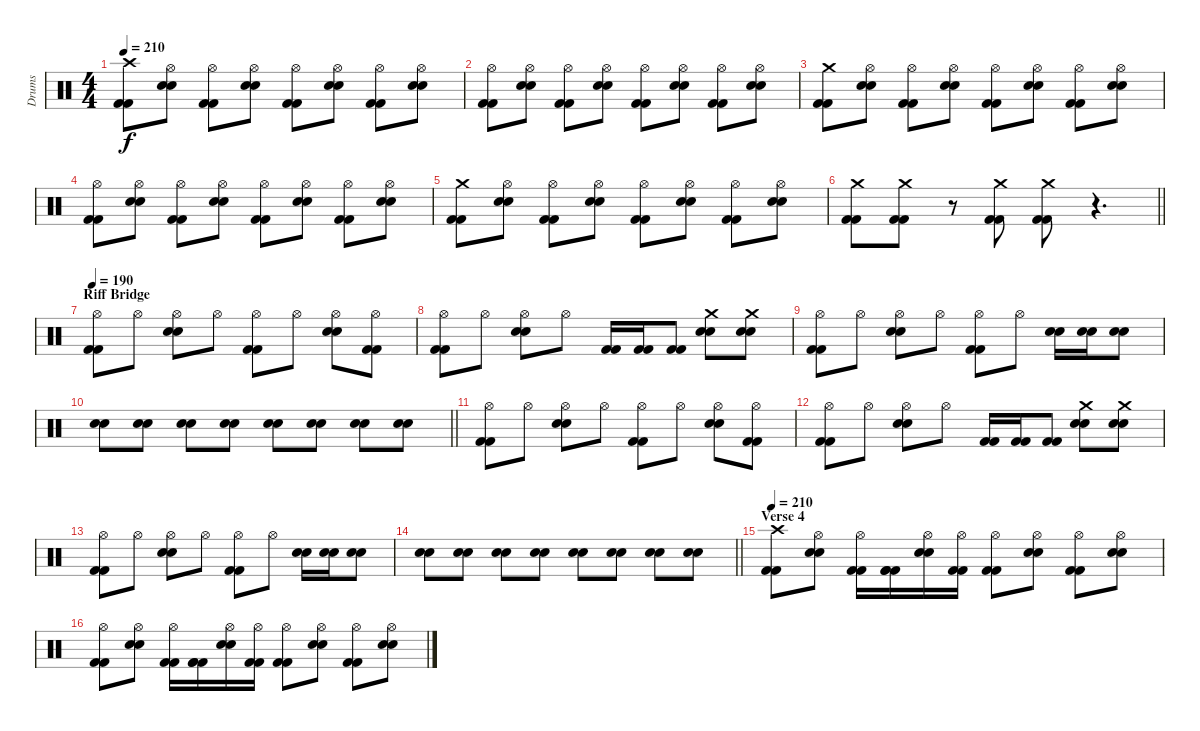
\track ("Drums" "Drums") {instrument percussion}
\staff {score}
\articulation defaults
\ts (4 4)
\tempo 210
\clef neutral
\ks c
("Crash high (hit)" "Kick (hit) 2" "Kick (hit) 2").8{dy f} ("Hi-Hat (open)" "Snare (hit) 2" "Snare (hit) 2").8 ("Hi-Hat (open)" "Kick (hit) 2" "Kick (hit) 2").8 ("Hi-Hat (open)" "Snare (hit) 2" "Snare (hit) 2").8 ("Hi-Hat (open)" "Kick (hit) 2" "Kick (hit) 2").8 ("Hi-Hat (open)" "Snare (hit) 2" "Snare (hit) 2").8 ("Hi-Hat (open)" "Kick (hit) 2" "Kick (hit) 2").8 ("Hi-Hat (open)" "Snare (hit) 2" "Snare (hit) 2").8 |
("Hi-Hat (open)" "Kick (hit) 2" "Kick (hit) 2").8 ("Hi-Hat (open)" "Snare (hit) 2" "Snare (hit) 2").8 ("Hi-Hat (open)" "Kick (hit) 2" "Kick (hit) 2").8 ("Hi-Hat (open)" "Snare (hit) 2" "Snare (hit) 2").8 ("Hi-Hat (open)" "Kick (hit) 2" "Kick (hit) 2").8 ("Hi-Hat (open)" "Snare (hit) 2" "Snare (hit) 2").8 ("Hi-Hat (open)" "Kick (hit) 2" "Kick (hit) 2").8 ("Hi-Hat (open)" "Snare (hit) 2" "Snare (hit) 2").8 |
("Crash medium (hit)" "Kick (hit) 2" "Kick (hit) 2").8 ("Hi-Hat (open)" "Snare (hit) 2" "Snare (hit) 2").8 ("Hi-Hat (open)" "Kick (hit) 2" "Kick (hit) 2").8 ("Hi-Hat (open)" "Snare (hit) 2" "Snare (hit) 2").8 ("Hi-Hat (open)" "Kick (hit) 2" "Kick (hit) 2").8 ("Hi-Hat (open)" "Snare (hit) 2" "Snare (hit) 2").8 ("Hi-Hat (open)" "Kick (hit) 2" "Kick (hit) 2").8 ("Hi-Hat (open)" "Snare (hit) 2" "Snare (hit) 2").8 |
("Hi-Hat (open)" "Kick (hit) 2" "Kick (hit) 2").8 ("Hi-Hat (open)" "Snare (hit) 2" "Snare (hit) 2").8 ("Hi-Hat (open)" "Kick (hit) 2" "Kick (hit) 2").8 ("Hi-Hat (open)" "Snare (hit) 2" "Snare (hit) 2").8 ("Hi-Hat (open)" "Kick (hit) 2" "Kick (hit) 2").8 ("Hi-Hat (open)" "Snare (hit) 2" "Snare (hit) 2").8 ("Hi-Hat (open)" "Kick (hit) 2" "Kick (hit) 2").8 ("Hi-Hat (open)" "Snare (hit) 2" "Snare (hit) 2").8 |
("Crash medium (hit)" "Kick (hit) 2" "Kick (hit) 2").8 ("Hi-Hat (open)" "Snare (hit) 2" "Snare (hit) 2").8 ("Hi-Hat (open)" "Kick (hit) 2" "Kick (hit) 2").8 ("Hi-Hat (open)" "Snare (hit) 2" "Snare (hit) 2").8 ("Hi-Hat (open)" "Kick (hit) 2" "Kick (hit) 2").8 ("Hi-Hat (open)" "Snare (hit) 2" "Snare (hit) 2").8 ("Hi-Hat (open)" "Kick (hit) 2" "Kick (hit) 2").8 ("Hi-Hat (open)" "Snare (hit) 2" "Snare (hit) 2").8 |
\barLineRight lightlight
("Crash medium (hit)" "Kick (hit) 2" "Kick (hit) 2").8 ("Crash medium (hit)" "Kick (hit) 2" "Kick (hit) 2").8 r.8 ("Crash medium (hit)" "Kick (hit) 2" "Kick (hit) 2").8 ("Crash medium (hit)" "Kick (hit) 2" "Kick (hit) 2").8 r.4{d} |
\section ("" "Riff Bridge")
\tempo 190
("Hi-Hat (open)" "Kick (hit) 2" "Kick (hit) 2").8 "Hi-Hat (open)".8 ("Hi-Hat (open)" "Snare (hit) 2" "Snare (hit) 2").8 "Hi-Hat (open)".8 ("Hi-Hat (open)" "Kick (hit) 2" "Kick (hit) 2").8 "Hi-Hat (open)".8 ("Hi-Hat (open)" "Snare (hit) 2" "Snare (hit) 2").8 ("Hi-Hat (open)" "Kick (hit) 2" "Kick (hit) 2").8 |
("Hi-Hat (open)" "Kick (hit) 2" "Kick (hit) 2").8 "Hi-Hat (open)".8 ("Hi-Hat (open)" "Snare (hit) 2" "Snare (hit) 2").8 "Hi-Hat (open)".8 ("Kick (hit) 2" "Kick (hit) 2").16 ("Kick (hit) 2" "Kick (hit) 2").16 ("Kick (hit) 2" "Kick (hit) 2").8 ("Crash medium (hit)" "Snare (hit) 2" "Snare (hit) 2").8 ("Crash medium (hit)" "Snare (hit) 2" "Snare (hit) 2").8 |
("Hi-Hat (open)" "Kick (hit) 2" "Kick (hit) 2").8 "Hi-Hat (open)".8 ("Hi-Hat (open)" "Snare (hit) 2" "Snare (hit) 2").8 "Hi-Hat (open)".8 ("Hi-Hat (open)" "Kick (hit) 2" "Kick (hit) 2").8 "Hi-Hat (open)".8 ("Snare (hit) 2" "Snare (hit) 2").16 ("Snare (hit) 2" "Snare (hit) 2").16 ("Snare (hit) 2" "Snare (hit) 2").8 |
\barLineRight lightlight
("Snare (hit) 2" "Snare (hit) 2").8 ("Snare (hit) 2" "Snare (hit) 2").8 ("Snare (hit) 2" "Snare (hit) 2").8 ("Snare (hit) 2" "Snare (hit) 2").8 ("Snare (hit) 2" "Snare (hit) 2").8 ("Snare (hit) 2" "Snare (hit) 2").8 ("Snare (hit) 2" "Snare (hit) 2").8 ("Snare (hit) 2" "Snare (hit) 2").8 |
("Hi-Hat (open)" "Kick (hit) 2" "Kick (hit) 2").8 "Hi-Hat (open)".8 ("Hi-Hat (open)" "Snare (hit) 2" "Snare (hit) 2").8 "Hi-Hat (open)".8 ("Hi-Hat (open)" "Kick (hit) 2" "Kick (hit) 2").8 "Hi-Hat (open)".8 ("Hi-Hat (open)" "Snare (hit) 2" "Snare (hit) 2").8 ("Hi-Hat (open)" "Kick (hit) 2" "Kick (hit) 2").8 |
("Hi-Hat (open)" "Kick (hit) 2" "Kick (hit) 2").8 "Hi-Hat (open)".8 ("Hi-Hat (open)" "Snare (hit) 2" "Snare (hit) 2").8 "Hi-Hat (open)".8 ("Kick (hit) 2" "Kick (hit) 2").16 ("Kick (hit) 2" "Kick (hit) 2").16 ("Kick (hit) 2" "Kick (hit) 2").8 ("Crash medium (hit)" "Snare (hit) 2" "Snare (hit) 2").8 ("Crash medium (hit)" "Snare (hit) 2" "Snare (hit) 2").8 |
("Hi-Hat (open)" "Kick (hit) 2" "Kick (hit) 2").8 "Hi-Hat (open)".8 ("Hi-Hat (open)" "Snare (hit) 2" "Snare (hit) 2").8 "Hi-Hat (open)".8 ("Hi-Hat (open)" "Kick (hit) 2" "Kick (hit) 2").8 "Hi-Hat (open)".8 ("Snare (hit) 2" "Snare (hit) 2").16 ("Snare (hit) 2" "Snare (hit) 2").16 ("Snare (hit) 2" "Snare (hit) 2").8 |
\barLineRight lightlight
("Snare (hit) 2" "Snare (hit) 2").8 ("Snare (hit) 2" "Snare (hit) 2").8 ("Snare (hit) 2" "Snare (hit) 2").8 ("Snare (hit) 2" "Snare (hit) 2").8 ("Snare (hit) 2" "Snare (hit) 2").8 ("Snare (hit) 2" "Snare (hit) 2").8 ("Snare (hit) 2" "Snare (hit) 2").8 ("Snare (hit) 2" "Snare (hit) 2").8 |
\section ("" "Verse 4")
\tempo 210
("Crash high (hit)" "Kick (hit) 2" "Kick (hit) 2").8 ("Hi-Hat (open)" "Snare (hit) 2" "Snare (hit) 2").8 ("Hi-Hat (open)" "Kick (hit) 2" "Kick (hit) 2").16 ("Kick (hit) 2" "Kick (hit) 2" "Kick (hit) 2").16 ("Hi-Hat (open)" "Snare (hit) 2" "Snare (hit) 2").16 ("Hi-Hat (open)" "Kick (hit) 2" "Kick (hit) 2").16 ("Hi-Hat (open)" "Kick (hit) 2" "Kick (hit) 2").8 ("Hi-Hat (open)" "Snare (hit) 2" "Snare (hit) 2").8 ("Hi-Hat (open)" "Kick (hit) 2" "Kick (hit) 2").8 ("Hi-Hat (open)" "Snare (hit) 2" "Snare (hit) 2").8 |
("Hi-Hat (open)" "Kick (hit) 2" "Kick (hit) 2").8 ("Hi-Hat (open)" "Snare (hit) 2" "Snare (hit) 2").8 ("Hi-Hat (open)" "Kick (hit) 2" "Kick (hit) 2").16 ("Kick (hit) 2" "Kick (hit) 2" "Kick (hit) 2").16 ("Hi-Hat (open)" "Snare (hit) 2" "Snare (hit) 2").16 ("Hi-Hat (open)" "Kick (hit) 2" "Kick (hit) 2").16 ("Hi-Hat (open)" "Kick (hit) 2" "Kick (hit) 2").8 ("Hi-Hat (open)" "Snare (hit) 2" "Snare (hit) 2").8 ("Hi-Hat (open)" "Kick (hit) 2" "Kick (hit) 2").8 ("Hi-Hat (open)" "Snare (hit) 2" "Snare (hit) 2").8
